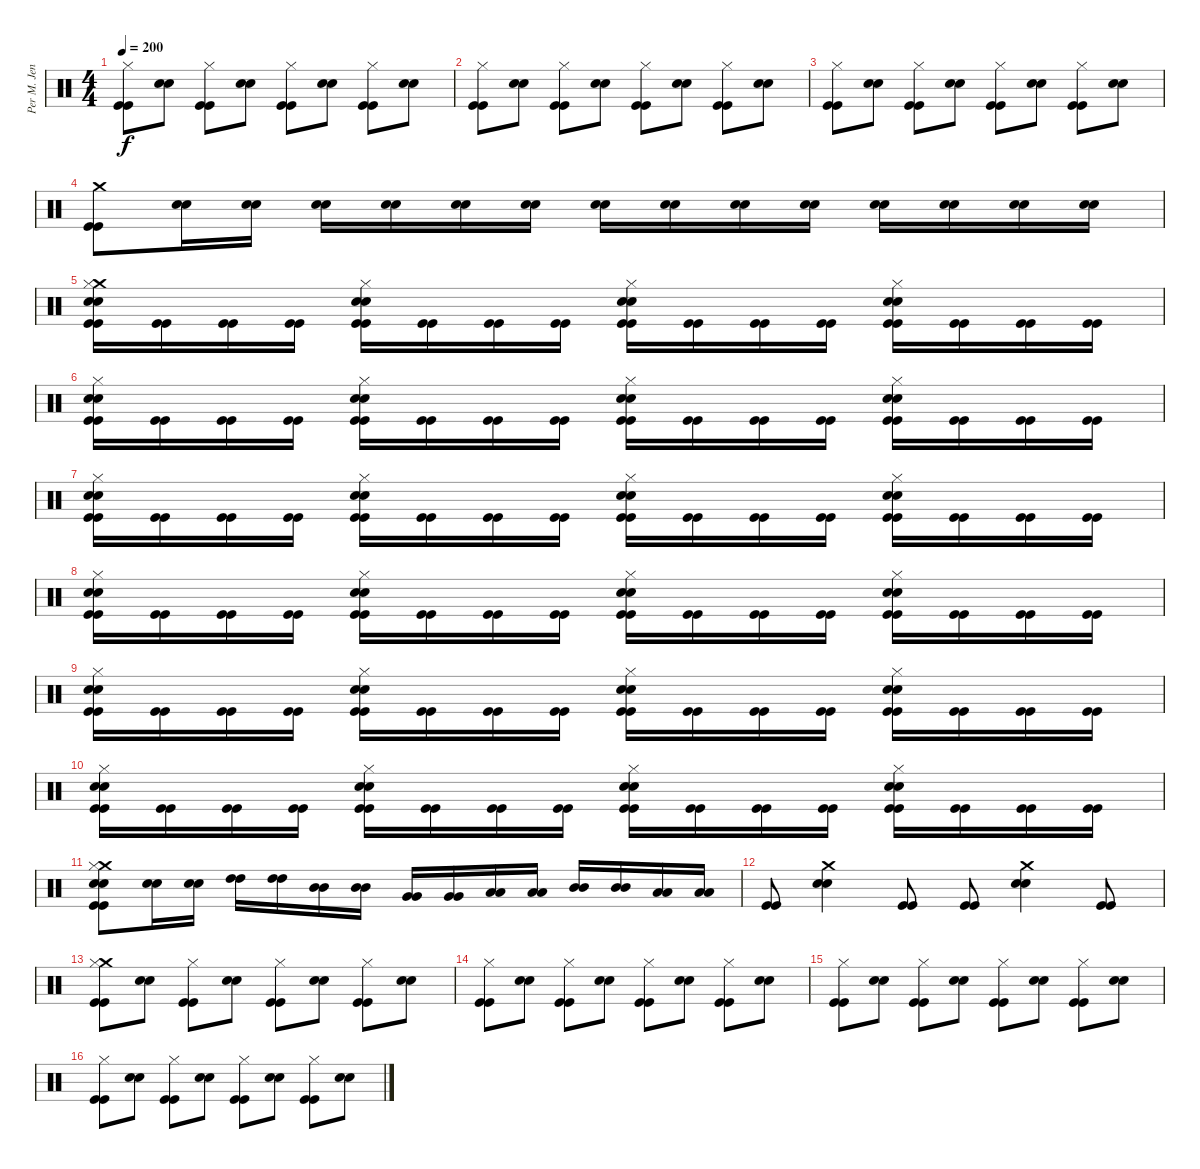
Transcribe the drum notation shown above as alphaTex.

\track ("Per M. Jensen" "Per M. Jen") {instrument percussion}
\staff {score}
\articulation defaults
\ts (4 4)
\tempo 200
\clef neutral
\ks c
("Hi-Hat (closed)" "Kick (hit)" "Kick (hit)").8{dy f} ("Snare (hit) 2" "Snare (hit) 2").8 ("Hi-Hat (closed)" "Kick (hit)" "Kick (hit)").8 ("Snare (hit) 2" "Snare (hit) 2").8 ("Hi-Hat (closed)" "Kick (hit)" "Kick (hit)").8 ("Snare (hit) 2" "Snare (hit) 2").8 ("Hi-Hat (closed)" "Kick (hit)" "Kick (hit)").8 ("Snare (hit) 2" "Snare (hit) 2").8 |
("Hi-Hat (closed)" "Kick (hit)" "Kick (hit)").8 ("Snare (hit) 2" "Snare (hit) 2").8 ("Hi-Hat (closed)" "Kick (hit)" "Kick (hit)").8 ("Snare (hit) 2" "Snare (hit) 2").8 ("Hi-Hat (closed)" "Kick (hit)" "Kick (hit)").8 ("Snare (hit) 2" "Snare (hit) 2").8 ("Hi-Hat (closed)" "Kick (hit)" "Kick (hit)").8 ("Snare (hit) 2" "Snare (hit) 2").8 |
("Hi-Hat (closed)" "Kick (hit)" "Kick (hit)").8 ("Snare (hit) 2" "Snare (hit) 2").8 ("Hi-Hat (closed)" "Kick (hit)" "Kick (hit)").8 ("Snare (hit) 2" "Snare (hit) 2").8 ("Hi-Hat (closed)" "Kick (hit)" "Kick (hit)").8 ("Snare (hit) 2" "Snare (hit) 2").8 ("Hi-Hat (closed)" "Kick (hit)" "Kick (hit)").8 ("Snare (hit) 2" "Snare (hit) 2").8 |
("Crash medium (hit)" "Kick (hit)" "Kick (hit)").8 ("Snare (hit) 2" "Snare (hit) 2").16 ("Snare (hit) 2" "Snare (hit) 2").16 ("Snare (hit) 2" "Snare (hit) 2").16 ("Snare (hit) 2" "Snare (hit) 2").16 ("Snare (hit) 2" "Snare (hit) 2").16 ("Snare (hit) 2" "Snare (hit) 2").16 ("Snare (hit) 2" "Snare (hit) 2").16 ("Snare (hit) 2" "Snare (hit) 2").16 ("Snare (hit) 2" "Snare (hit) 2").16 ("Snare (hit) 2" "Snare (hit) 2").16 ("Snare (hit) 2" "Snare (hit) 2").16 ("Snare (hit) 2" "Snare (hit) 2").16 ("Snare (hit) 2" "Snare (hit) 2").16 ("Snare (hit) 2" "Snare (hit) 2").16 |
("Crash medium (hit)" "Hi-Hat (closed)" "Snare (hit) 2" "Snare (hit) 2" "Kick (hit)" "Kick (hit)").16 ("Kick (hit)" "Kick (hit)").16 ("Kick (hit)" "Kick (hit)").16 ("Kick (hit)" "Kick (hit)").16 ("Hi-Hat (closed)" "Snare (hit) 2" "Snare (hit) 2" "Kick (hit)" "Kick (hit)").16 ("Kick (hit)" "Kick (hit)").16 ("Kick (hit)" "Kick (hit)").16 ("Kick (hit)" "Kick (hit)").16 ("Hi-Hat (closed)" "Snare (hit) 2" "Snare (hit) 2" "Kick (hit)" "Kick (hit)").16 ("Kick (hit)" "Kick (hit)").16 ("Kick (hit)" "Kick (hit)").16 ("Kick (hit)" "Kick (hit)").16 ("Hi-Hat (closed)" "Snare (hit) 2" "Snare (hit) 2" "Kick (hit)" "Kick (hit)").16 ("Kick (hit)" "Kick (hit)").16 ("Kick (hit)" "Kick (hit)").16 ("Kick (hit)" "Kick (hit)").16 |
("Hi-Hat (closed)" "Snare (hit) 2" "Snare (hit) 2" "Kick (hit)" "Kick (hit)").16 ("Kick (hit)" "Kick (hit)").16 ("Kick (hit)" "Kick (hit)").16 ("Kick (hit)" "Kick (hit)").16 ("Hi-Hat (closed)" "Snare (hit) 2" "Snare (hit) 2" "Kick (hit)" "Kick (hit)").16 ("Kick (hit)" "Kick (hit)").16 ("Kick (hit)" "Kick (hit)").16 ("Kick (hit)" "Kick (hit)").16 ("Hi-Hat (closed)" "Snare (hit) 2" "Snare (hit) 2" "Kick (hit)" "Kick (hit)").16 ("Kick (hit)" "Kick (hit)").16 ("Kick (hit)" "Kick (hit)").16 ("Kick (hit)" "Kick (hit)").16 ("Hi-Hat (closed)" "Snare (hit) 2" "Snare (hit) 2" "Kick (hit)" "Kick (hit)").16 ("Kick (hit)" "Kick (hit)").16 ("Kick (hit)" "Kick (hit)").16 ("Kick (hit)" "Kick (hit)").16 |
("Hi-Hat (closed)" "Snare (hit) 2" "Snare (hit) 2" "Kick (hit)" "Kick (hit)").16 ("Kick (hit)" "Kick (hit)").16 ("Kick (hit)" "Kick (hit)").16 ("Kick (hit)" "Kick (hit)").16 ("Hi-Hat (closed)" "Snare (hit) 2" "Snare (hit) 2" "Kick (hit)" "Kick (hit)").16 ("Kick (hit)" "Kick (hit)").16 ("Kick (hit)" "Kick (hit)").16 ("Kick (hit)" "Kick (hit)").16 ("Hi-Hat (closed)" "Snare (hit) 2" "Snare (hit) 2" "Kick (hit)" "Kick (hit)").16 ("Kick (hit)" "Kick (hit)").16 ("Kick (hit)" "Kick (hit)").16 ("Kick (hit)" "Kick (hit)").16 ("Hi-Hat (closed)" "Snare (hit) 2" "Snare (hit) 2" "Kick (hit)" "Kick (hit)").16 ("Kick (hit)" "Kick (hit)").16 ("Kick (hit)" "Kick (hit)").16 ("Kick (hit)" "Kick (hit)").16 |
("Hi-Hat (closed)" "Snare (hit) 2" "Snare (hit) 2" "Kick (hit)" "Kick (hit)").16 ("Kick (hit)" "Kick (hit)").16 ("Kick (hit)" "Kick (hit)").16 ("Kick (hit)" "Kick (hit)").16 ("Hi-Hat (closed)" "Snare (hit) 2" "Snare (hit) 2" "Kick (hit)" "Kick (hit)").16 ("Kick (hit)" "Kick (hit)").16 ("Kick (hit)" "Kick (hit)").16 ("Kick (hit)" "Kick (hit)").16 ("Hi-Hat (closed)" "Snare (hit) 2" "Snare (hit) 2" "Kick (hit)" "Kick (hit)").16 ("Kick (hit)" "Kick (hit)").16 ("Kick (hit)" "Kick (hit)").16 ("Kick (hit)" "Kick (hit)").16 ("Hi-Hat (closed)" "Snare (hit) 2" "Snare (hit) 2" "Kick (hit)" "Kick (hit)").16 ("Kick (hit)" "Kick (hit)").16 ("Kick (hit)" "Kick (hit)").16 ("Kick (hit)" "Kick (hit)").16 |
("Hi-Hat (closed)" "Snare (hit) 2" "Snare (hit) 2" "Kick (hit)" "Kick (hit)").16 ("Kick (hit)" "Kick (hit)").16 ("Kick (hit)" "Kick (hit)").16 ("Kick (hit)" "Kick (hit)").16 ("Hi-Hat (closed)" "Snare (hit) 2" "Snare (hit) 2" "Kick (hit)" "Kick (hit)").16 ("Kick (hit)" "Kick (hit)").16 ("Kick (hit)" "Kick (hit)").16 ("Kick (hit)" "Kick (hit)").16 ("Hi-Hat (closed)" "Snare (hit) 2" "Snare (hit) 2" "Kick (hit)" "Kick (hit)").16 ("Kick (hit)" "Kick (hit)").16 ("Kick (hit)" "Kick (hit)").16 ("Kick (hit)" "Kick (hit)").16 ("Hi-Hat (closed)" "Snare (hit) 2" "Snare (hit) 2" "Kick (hit)" "Kick (hit)").16 ("Kick (hit)" "Kick (hit)").16 ("Kick (hit)" "Kick (hit)").16 ("Kick (hit)" "Kick (hit)").16 |
("Hi-Hat (closed)" "Snare (hit) 2" "Snare (hit) 2" "Kick (hit)" "Kick (hit)").16 ("Kick (hit)" "Kick (hit)").16 ("Kick (hit)" "Kick (hit)").16 ("Kick (hit)" "Kick (hit)").16 ("Hi-Hat (closed)" "Snare (hit) 2" "Snare (hit) 2" "Kick (hit)" "Kick (hit)").16 ("Kick (hit)" "Kick (hit)").16 ("Kick (hit)" "Kick (hit)").16 ("Kick (hit)" "Kick (hit)").16 ("Hi-Hat (closed)" "Snare (hit) 2" "Snare (hit) 2" "Kick (hit)" "Kick (hit)").16 ("Kick (hit)" "Kick (hit)").16 ("Kick (hit)" "Kick (hit)").16 ("Kick (hit)" "Kick (hit)").16 ("Hi-Hat (closed)" "Snare (hit) 2" "Snare (hit) 2" "Kick (hit)" "Kick (hit)").16 ("Kick (hit)" "Kick (hit)").16 ("Kick (hit)" "Kick (hit)").16 ("Kick (hit)" "Kick (hit)").16 |
("Crash medium (hit)" "Hi-Hat (closed)" "Snare (hit) 2" "Snare (hit) 2" "Kick (hit)" "Kick (hit)").8 ("Snare (hit) 2" "Snare (hit) 2").16 ("Snare (hit) 2" "Snare (hit) 2").16 ("High Tom (hit)" "High Tom (hit)").16 ("High Tom (hit)" "High Tom (hit)").16 ("Mid Tom (hit)" "Mid Tom (hit)").16 ("Mid Tom (hit)" "Mid Tom (hit)").16 ("Very Low Tom (hit)" "Very Low Tom (hit)").16 ("Very Low Tom (hit)" "Very Low Tom (hit)").16 ("Low Floor Tom (hit)" "Low Floor Tom (hit)").16 ("Low Floor Tom (hit)" "Low Floor Tom (hit)").16 ("Mid Tom (hit)" "Mid Tom (hit)").16 ("Mid Tom (hit)" "Mid Tom (hit)").16 ("Low Floor Tom (hit)" "Low Floor Tom (hit)").16 ("Low Floor Tom (hit)" "Low Floor Tom (hit)").16 |
("Kick (hit)" "Kick (hit)").8 ("Crash medium (hit)" "Snare (hit) 2" "Snare (hit) 2").4 ("Kick (hit)" "Kick (hit)").8 ("Kick (hit)" "Kick (hit)").8 ("Crash medium (hit)" "Snare (hit) 2" "Snare (hit) 2").4 ("Kick (hit)" "Kick (hit)").8 |
("Crash medium (hit)" "Hi-Hat (closed)" "Kick (hit)" "Kick (hit)").8 ("Snare (hit) 2" "Snare (hit) 2").8 ("Hi-Hat (closed)" "Kick (hit)" "Kick (hit)").8 ("Snare (hit) 2" "Snare (hit) 2").8 ("Hi-Hat (closed)" "Kick (hit)" "Kick (hit)").8 ("Snare (hit) 2" "Snare (hit) 2").8 ("Hi-Hat (closed)" "Kick (hit)" "Kick (hit)").8 ("Snare (hit) 2" "Snare (hit) 2").8 |
("Hi-Hat (closed)" "Kick (hit)" "Kick (hit)").8 ("Snare (hit) 2" "Snare (hit) 2").8 ("Hi-Hat (closed)" "Kick (hit)" "Kick (hit)").8 ("Snare (hit) 2" "Snare (hit) 2").8 ("Hi-Hat (closed)" "Kick (hit)" "Kick (hit)").8 ("Snare (hit) 2" "Snare (hit) 2").8 ("Hi-Hat (closed)" "Kick (hit)" "Kick (hit)").8 ("Snare (hit) 2" "Snare (hit) 2").8 |
("Hi-Hat (closed)" "Kick (hit)" "Kick (hit)").8 ("Snare (hit) 2" "Snare (hit) 2").8 ("Hi-Hat (closed)" "Kick (hit)" "Kick (hit)").8 ("Snare (hit) 2" "Snare (hit) 2").8 ("Hi-Hat (closed)" "Kick (hit)" "Kick (hit)").8 ("Snare (hit) 2" "Snare (hit) 2").8 ("Hi-Hat (closed)" "Kick (hit)" "Kick (hit)").8 ("Snare (hit) 2" "Snare (hit) 2").8 |
("Hi-Hat (closed)" "Kick (hit)" "Kick (hit)").8 ("Snare (hit) 2" "Snare (hit) 2").8 ("Hi-Hat (closed)" "Kick (hit)" "Kick (hit)").8 ("Snare (hit) 2" "Snare (hit) 2").8 ("Hi-Hat (closed)" "Kick (hit)" "Kick (hit)").8 ("Snare (hit) 2" "Snare (hit) 2").8 ("Hi-Hat (closed)" "Kick (hit)" "Kick (hit)").8 ("Snare (hit) 2" "Snare (hit) 2").8
